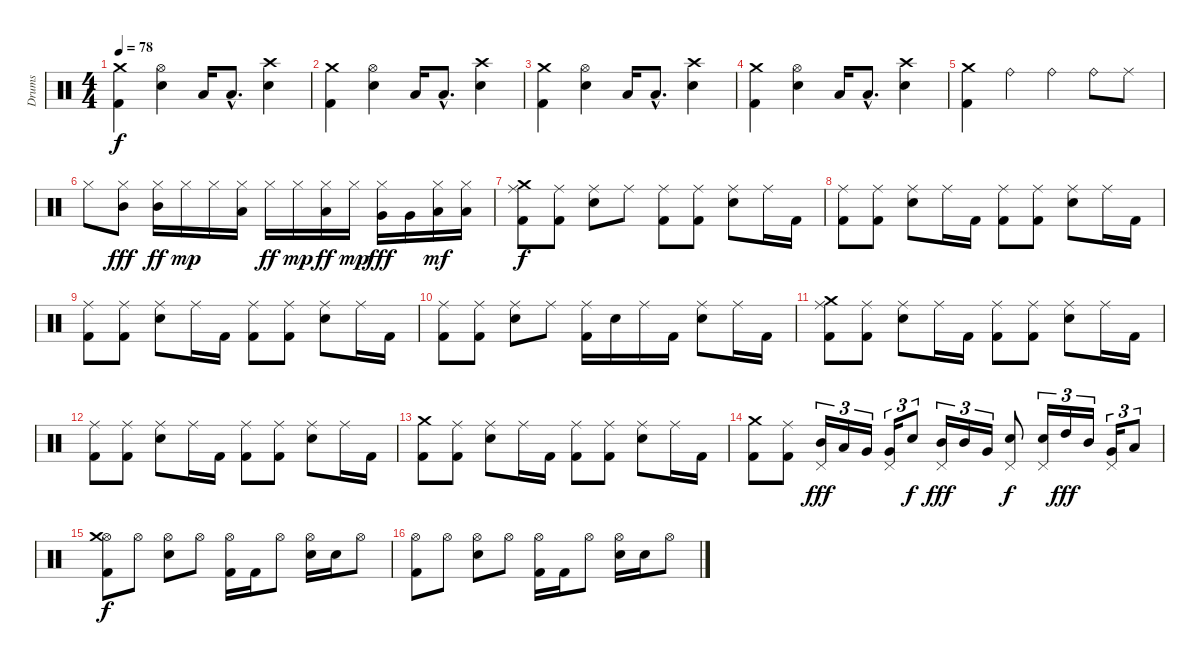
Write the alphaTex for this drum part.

\track ("Drums" "Drums") {instrument percussion}
\staff {score}
\articulation defaults
\ts (4 4)
\tempo 78
\clef neutral
\ks c
("Kick (hit) 2" "Crash medium (hit)").4{dy f} ("Electric Snare (hit)" "Hi-Hat (open)").4 "Low Tom (hit)".16 "Low Tom (hit)"{hac}.8{d} ("Electric Snare (hit)" "Crash high (hit)").4 |
("Kick (hit) 2" "Crash medium (hit)").4 ("Electric Snare (hit)" "Hi-Hat (open)").4 "Low Tom (hit)".16 "Low Tom (hit)"{hac}.8{d} ("Electric Snare (hit)" "Crash high (hit)").4 |
("Kick (hit) 2" "Crash medium (hit)").4 ("Electric Snare (hit)" "Hi-Hat (open)").4 "Low Tom (hit)".16 "Low Tom (hit)"{hac}.8{d} ("Electric Snare (hit)" "Crash high (hit)").4 |
("Kick (hit) 2" "Crash medium (hit)").4 ("Electric Snare (hit)" "Hi-Hat (open)").4 "Low Tom (hit)".16 "Low Tom (hit)"{hac}.8{d} ("Electric Snare (hit)" "Crash high (hit)").4 |
("Kick (hit) 2" "Crash medium (hit)").4 "Ride (bell)".4 "Ride (bell)".4 "Ride (bell)".8 "Ride (middle)".8 |
"Hi-Hat (closed)".8 ("Mid Tom (hit)" "Hi-Hat (closed)").8{dy fff} ("Mid Tom (hit)" "Hi-Hat (closed)").16{dy ff} "Hi-Hat (closed)".16{dy mp} "Hi-Hat (closed)".16 ("Low Tom (hit)" "Hi-Hat (closed)").16 "Hi-Hat (closed)".16{dy ff} "Hi-Hat (closed)".16{dy mp} ("Low Tom (hit)" "Hi-Hat (closed)").16{dy ff} "Hi-Hat (closed)".16{dy mp} ("Very Low Tom (hit)" "Hi-Hat (closed)").16{dy fff} "Very Low Tom (hit)".16 ("Low Floor Tom (hit)" "Hi-Hat (closed)").16{dy mf} ("Low Floor Tom (hit)" "Hi-Hat (closed)").16 |
("Kick (hit) 2" "Ride (middle)" "Crash medium (hit)").8{dy f} ("Kick (hit) 2" "Ride (middle)").8 ("Electric Snare (hit)" "Ride (middle)").8 "Ride (middle)".8 ("Kick (hit) 2" "Ride (middle)").8 ("Kick (hit) 2" "Ride (middle)").8 ("Electric Snare (hit)" "Ride (middle)").8 "Ride (middle)".16 "Kick (hit) 2".16 |
("Kick (hit) 2" "Ride (middle)").8 ("Kick (hit) 2" "Ride (middle)").8 ("Electric Snare (hit)" "Ride (middle)").8 "Ride (middle)".16 "Kick (hit) 2".16 ("Kick (hit) 2" "Ride (middle)").8 ("Kick (hit) 2" "Ride (middle)").8 ("Electric Snare (hit)" "Ride (middle)").8 "Ride (middle)".16 "Kick (hit) 2".16 |
("Kick (hit) 2" "Ride (middle)").8 ("Kick (hit) 2" "Ride (middle)").8 ("Electric Snare (hit)" "Ride (middle)").8 "Ride (middle)".16 "Kick (hit) 2".16 ("Kick (hit) 2" "Ride (middle)").8 ("Kick (hit) 2" "Ride (middle)").8 ("Electric Snare (hit)" "Ride (middle)").8 "Ride (middle)".16 "Kick (hit) 2".16 |
("Kick (hit) 2" "Ride (middle)").8 ("Kick (hit) 2" "Ride (middle)").8 ("Electric Snare (hit)" "Ride (middle)").8 "Ride (middle)".8 ("Kick (hit) 2" "Ride (middle)").16 "Electric Snare (hit)".16 "Ride (middle)".16 "Kick (hit) 2".16 ("Electric Snare (hit)" "Ride (middle)").8 "Ride (middle)".16 "Kick (hit) 2".16 |
("Kick (hit) 2" "Ride (middle)" "Crash medium (hit)").8 ("Kick (hit) 2" "Ride (middle)").8 ("Electric Snare (hit)" "Ride (middle)").8 "Ride (middle)".16 "Kick (hit) 2".16 ("Kick (hit) 2" "Ride (middle)").8 ("Kick (hit) 2" "Ride (middle)").8 ("Electric Snare (hit)" "Ride (middle)").8 "Ride (middle)".16 "Kick (hit) 2".16 |
("Kick (hit) 2" "Ride (middle)").8 ("Kick (hit) 2" "Ride (middle)").8 ("Electric Snare (hit)" "Ride (middle)").8 "Ride (middle)".16 "Kick (hit) 2".16 ("Kick (hit) 2" "Ride (middle)").8 ("Kick (hit) 2" "Ride (middle)").8 ("Electric Snare (hit)" "Ride (middle)").8 "Ride (middle)".16 "Kick (hit) 2".16 |
("Kick (hit) 2" "Crash medium (hit)").8 ("Kick (hit) 2" "Ride (middle)").8 ("Electric Snare (hit)" "Ride (middle)").8 "Ride (middle)".16 "Kick (hit) 2".16 ("Kick (hit) 2" "Ride (middle)").8 ("Kick (hit) 2" "Ride (middle)").8 ("Electric Snare (hit)" "Ride (middle)").8 "Ride (middle)".16 "Kick (hit) 2".16 |
("Kick (hit) 2" "Crash medium (hit)").8 ("Kick (hit) 2" "Ride (middle)").8 ("Mid Tom (hit)" "Pedal Hi-Hat (hit)").16{tu (3 2) dy fff} "Low Tom (hit)".16{tu (3 2)} "Very Low Tom (hit)".16{tu (3 2)} ("Very Low Tom (hit)" "Pedal Hi-Hat (hit)").16{tu (3 2)} "Electric Snare (hit)".8{tu (3 2) dy f} ("Mid Tom (hit)" "Pedal Hi-Hat (hit)").16{tu (3 2) dy fff} "Mid Tom (hit)".16{tu (3 2)} "Very Low Tom (hit)".16{tu (3 2)} ("Electric Snare (hit)" "Pedal Hi-Hat (hit)").8{dy f} ("Electric Snare (hit)" "Pedal Hi-Hat (hit)").16{tu (3 2)} "High Tom (hit)".16{tu (3 2) dy fff} "Mid Tom (hit)".16{tu (3 2)} ("Very Low Tom (hit)" "Pedal Hi-Hat (hit)").16{tu (3 2)} "Low Tom (hit)".8{tu (3 2)} |
("Kick (hit) 2" "Hi-Hat (open)" "Crash medium (hit)").8{dy f} "Hi-Hat (open)".8 ("Electric Snare (hit)" "Hi-Hat (open)").8 "Hi-Hat (open)".8 ("Kick (hit) 2" "Hi-Hat (open)").16 "Kick (hit) 2".16 "Hi-Hat (open)".8 ("Electric Snare (hit)" "Hi-Hat (open)").16 "Electric Snare (hit)".16 "Hi-Hat (open)".8 |
("Kick (hit) 2" "Hi-Hat (open)").8 "Hi-Hat (open)".8 ("Electric Snare (hit)" "Hi-Hat (open)").8 "Hi-Hat (open)".8 ("Kick (hit) 2" "Hi-Hat (open)").16 "Kick (hit) 2".16 "Hi-Hat (open)".8 ("Electric Snare (hit)" "Hi-Hat (open)").16 "Electric Snare (hit)".16 "Hi-Hat (open)".8
